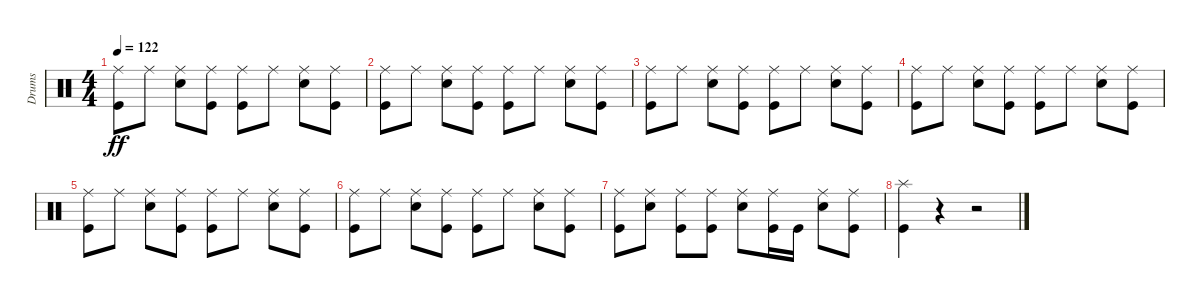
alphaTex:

\track ("Drums" "Drums") {instrument percussion}
\staff {score}
\articulation defaults
\ts (4 4)
\tempo 122
\clef neutral
\ks c
("Ride (middle)" "Kick (hit)").8{dy ff} "Ride (middle)".8 ("Ride (middle)" "Snare (hit) 2").8 ("Ride (middle)" "Kick (hit)").8 ("Ride (middle)" "Kick (hit)").8 "Ride (middle)".8 ("Ride (middle)" "Snare (hit) 2").8 ("Ride (middle)" "Kick (hit)").8 |
("Ride (middle)" "Kick (hit)").8 "Ride (middle)".8 ("Ride (middle)" "Snare (hit) 2").8 ("Ride (middle)" "Kick (hit)").8 ("Ride (middle)" "Kick (hit)").8 "Ride (middle)".8 ("Ride (middle)" "Snare (hit) 2").8 ("Ride (middle)" "Kick (hit)").8 |
("Ride (middle)" "Kick (hit)").8 "Ride (middle)".8 ("Ride (middle)" "Snare (hit) 2").8 ("Ride (middle)" "Kick (hit)").8 ("Ride (middle)" "Kick (hit)").8 "Ride (middle)".8 ("Ride (middle)" "Snare (hit) 2").8 ("Ride (middle)" "Kick (hit)").8 |
("Ride (middle)" "Kick (hit)").8 "Ride (middle)".8 ("Ride (middle)" "Snare (hit) 2").8 ("Ride (middle)" "Kick (hit)").8 ("Ride (middle)" "Kick (hit)").8 "Ride (middle)".8 ("Ride (middle)" "Snare (hit) 2").8 ("Ride (middle)" "Kick (hit)").8 |
("Ride (middle)" "Kick (hit)").8 "Ride (middle)".8 ("Ride (middle)" "Snare (hit) 2").8 ("Ride (middle)" "Kick (hit)").8 ("Ride (middle)" "Kick (hit)").8 "Ride (middle)".8 ("Ride (middle)" "Snare (hit) 2").8 ("Ride (middle)" "Kick (hit)").8 |
("Ride (middle)" "Kick (hit)").8 "Ride (middle)".8 ("Ride (middle)" "Snare (hit) 2").8 ("Ride (middle)" "Kick (hit)").8 ("Ride (middle)" "Kick (hit)").8 "Ride (middle)".8 ("Ride (middle)" "Snare (hit) 2").8 ("Ride (middle)" "Kick (hit)").8 |
("Ride (middle)" "Kick (hit)").8 ("Ride (middle)" "Snare (hit) 2").8 ("Ride (middle)" "Kick (hit)").8 ("Ride (middle)" "Kick (hit)").8 ("Ride (middle)" "Snare (hit) 2").8 ("Ride (middle)" "Kick (hit)").16 "Kick (hit)".16 ("Ride (middle)" "Snare (hit) 2").8 ("Ride (middle)" "Kick (hit)").8 |
("Splash (hit)" "Kick (hit)").4 r.4 r.2
